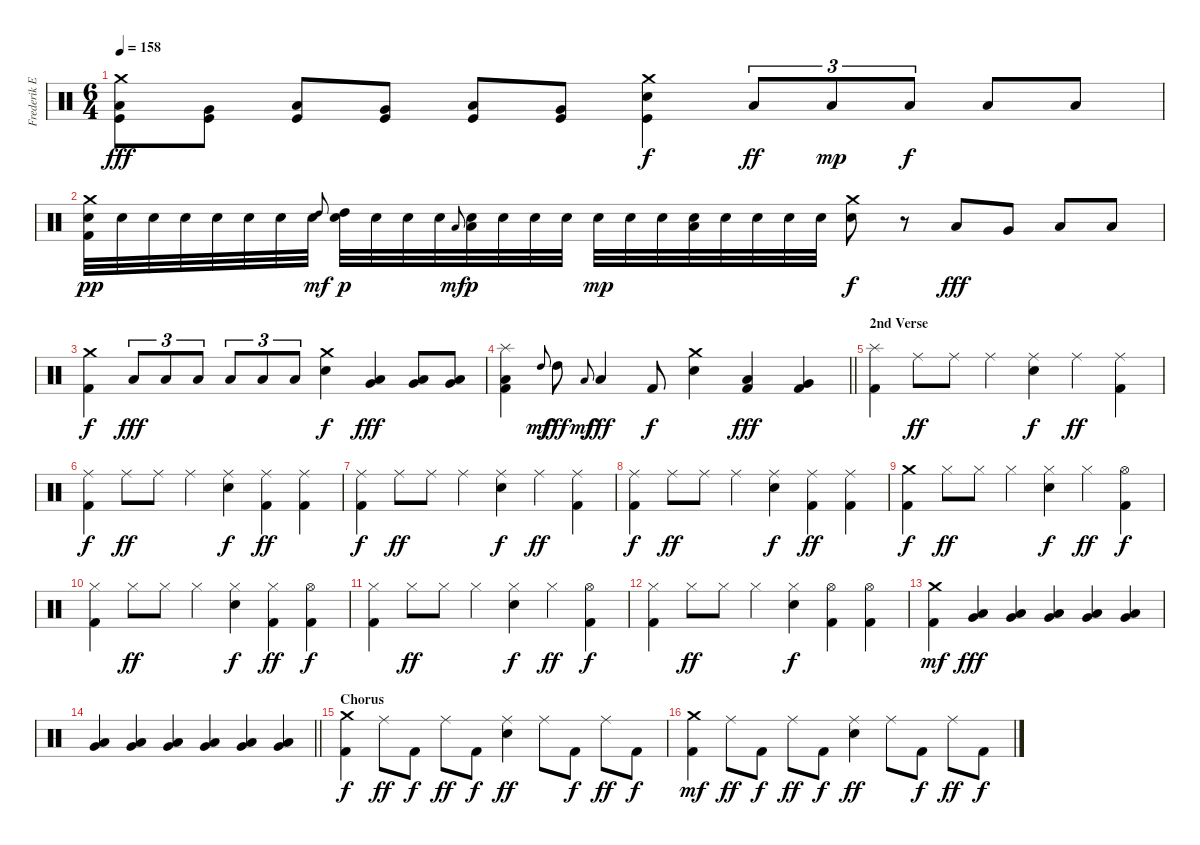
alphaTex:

\track ("Frederik Ehmke" "Frederik E") {instrument percussion}
\staff {score}
\articulation defaults
\ts (6 4)
\tempo 158
\clef neutral
\ks c
("Crash medium (hit)" "Low Floor Tom (hit)" "Kick (hit)").8{dy fff} ("Very Low Tom (hit)" "Kick (hit)").8 ("Low Tom (hit)" "Kick (hit)").8 ("Very Low Tom (hit)" "Kick (hit)").8 ("Low Floor Tom (hit)" "Kick (hit)").8 ("Very Low Tom (hit)" "Kick (hit)").8 ("Crash medium (hit)" "Electric Snare (hit)" "Kick (hit)").4{dy f} "Low Floor Tom (hit)".8{tu (3 2) dy ff} "Low Floor Tom (hit)".8{tu (3 2) dy mp} "Low Floor Tom (hit)".8{tu (3 2) dy f} "Low Floor Tom (hit)".8 "Low Floor Tom (hit)".8 |
("Crash medium (hit)" "Electric Snare (hit)" "Kick (hit) 2").32{dy pp} "Electric Snare (hit)".32 "Electric Snare (hit)".32 "Electric Snare (hit)".32 "Electric Snare (hit)".32 "Electric Snare (hit)".32 "Electric Snare (hit)".32 "Electric Snare (hit)".32 "High Tom (hit)".8{gr onbeat dy mf} ("High Tom (hit)" "Electric Snare (hit)").32{dy p} "Electric Snare (hit)".32 "Electric Snare (hit)".32 "Electric Snare (hit)".32 "Low Tom (hit)".8{gr onbeat dy mf} ("Low Tom (hit)" "Electric Snare (hit)").32{dy p} "Electric Snare (hit)".32 "Electric Snare (hit)".32 "Electric Snare (hit)".32 "Electric Snare (hit)".32{dy mp} "Electric Snare (hit)".32 "Electric Snare (hit)".32 ("Low Floor Tom (hit)" "Electric Snare (hit)").32 "Electric Snare (hit)".32 "Electric Snare (hit)".32 "Electric Snare (hit)".32 "Electric Snare (hit)".32 ("Crash medium (hit)" "Electric Snare (hit)").8{dy f} r.8 "Low Tom (hit)".8{dy fff} "Very Low Tom (hit)".8 "Low Floor Tom (hit)".8 "Low Floor Tom (hit)".8 |
("Crash medium (hit)" "Kick (hit) 2").4{dy f} "Low Tom (hit)".8{tu (3 2) dy fff} "Low Tom (hit)".8{tu (3 2)} "Low Tom (hit)".8{tu (3 2)} "Low Tom (hit)".8{tu (3 2)} "Low Tom (hit)".8{tu (3 2)} "Low Tom (hit)".8{tu (3 2)} ("Crash medium (hit)" "Electric Snare (hit)").4{dy f} ("Low Tom (hit)" "Very Low Tom (hit)").4{dy fff} ("Very Low Tom (hit)" "Low Floor Tom (hit)").8 ("Very Low Tom (hit)" "Low Floor Tom (hit)").8 |
\barLineRight lightlight
("Splash (hit)" "Low Tom (hit)" "Kick (hit) 2").4 "High Tom (hit)".8{gr onbeat dy mf} "High Tom (hit)".8{dy fff} "Low Tom (hit)".8{gr onbeat dy mf} "Low Tom (hit)".4{dy fff} "Kick (hit) 2".8{dy f} ("Crash medium (hit)" "Electric Snare (hit)").4 ("Low Tom (hit)" "Kick (hit) 2").4{dy fff} ("Very Low Tom (hit)" "Kick (hit) 2").4 |
\section ("" "2nd Verse")
("Splash (hit)" "Kick (hit) 2").4 "Ride (middle)".8{dy ff} "Ride (middle)".8 "Ride (middle)".4 ("Ride (middle)" "Electric Snare (hit)").4{dy f} "Ride (middle)".4{dy ff} ("Ride (middle)" "Kick (hit) 2").4 |
("Ride (middle)" "Kick (hit) 2").4{dy f} "Ride (middle)".8{dy ff} "Ride (middle)".8 "Ride (middle)".4 ("Ride (middle)" "Electric Snare (hit)").4{dy f} ("Ride (middle)" "Kick (hit) 2").4{dy ff} ("Ride (middle)" "Kick (hit) 2").4 |
("Ride (middle)" "Kick (hit) 2").4{dy f} "Ride (middle)".8{dy ff} "Ride (middle)".8 "Ride (middle)".4 ("Ride (middle)" "Electric Snare (hit)").4{dy f} "Ride (middle)".4{dy ff} ("Ride (middle)" "Kick (hit) 2").4 |
("Ride (middle)" "Kick (hit) 2").4{dy f} "Ride (middle)".8{dy ff} "Ride (middle)".8 "Ride (middle)".4 ("Ride (middle)" "Electric Snare (hit)").4{dy f} ("Ride (middle)" "Kick (hit) 2").4{dy ff} ("Ride (middle)" "Kick (hit) 2").4 |
("Crash medium (hit)" "Kick (hit) 2").4{dy f} "Hi-Hat (closed)".8{dy ff} "Hi-Hat (closed)".8 "Hi-Hat (closed)".4 ("Hi-Hat (closed)" "Electric Snare (hit)").4{dy f} "Hi-Hat (closed)".4{dy ff} ("Hi-Hat (open)" "Kick (hit) 2").4{dy f} |
("Hi-Hat (closed)" "Kick (hit) 2").4 "Hi-Hat (closed)".8{dy ff} "Hi-Hat (closed)".8 "Hi-Hat (closed)".4 ("Hi-Hat (closed)" "Electric Snare (hit)").4{dy f} ("Hi-Hat (closed)" "Kick (hit) 2").4{dy ff} ("Hi-Hat (open)" "Kick (hit) 2").4{dy f} |
("Hi-Hat (closed)" "Kick (hit) 2").4 "Hi-Hat (closed)".8{dy ff} "Hi-Hat (closed)".8 "Hi-Hat (closed)".4 ("Hi-Hat (closed)" "Electric Snare (hit)").4{dy f} "Hi-Hat (closed)".4{dy ff} ("Hi-Hat (open)" "Kick (hit) 2").4{dy f} |
("Hi-Hat (closed)" "Kick (hit) 2").4 "Hi-Hat (closed)".8{dy ff} "Hi-Hat (closed)".8 "Hi-Hat (closed)".4 ("Hi-Hat (closed)" "Electric Snare (hit)").4{dy f} ("Hi-Hat (open)" "Kick (hit) 2").4 ("Hi-Hat (open)" "Kick (hit) 2").4 |
("Crash medium (hit)" "Kick (hit) 2").4{dy mf} ("Low Tom (hit)" "Very Low Tom (hit)").4{dy fff} ("Low Tom (hit)" "Very Low Tom (hit)").4 ("Low Tom (hit)" "Very Low Tom (hit)").4 ("Low Tom (hit)" "Very Low Tom (hit)").4 ("Low Tom (hit)" "Very Low Tom (hit)").4 |
\barLineRight lightlight
("Low Tom (hit)" "Very Low Tom (hit)").4 ("Low Tom (hit)" "Very Low Tom (hit)").4 ("Low Tom (hit)" "Very Low Tom (hit)").4 ("Low Tom (hit)" "Very Low Tom (hit)").4 ("Low Tom (hit)" "Very Low Tom (hit)").4 ("Low Tom (hit)" "Very Low Tom (hit)").4 |
\section ("" "Chorus")
("Crash medium (hit)" "Kick (hit) 2").4{dy f} "Ride (middle)".8{dy ff} "Kick (hit) 2".8{dy f} "Ride (middle)".8{dy ff} "Kick (hit) 2".8{dy f} ("Ride (middle)" "Electric Snare (hit)").4{dy ff} "Ride (middle)".8 "Kick (hit) 2".8{dy f} "Ride (middle)".8{dy ff} "Kick (hit) 2".8{dy f} |
("Crash medium (hit)" "Kick (hit) 2").4{dy mf} "Ride (middle)".8{dy ff} "Kick (hit) 2".8{dy f} "Ride (middle)".8{dy ff} "Kick (hit) 2".8{dy f} ("Ride (middle)" "Electric Snare (hit)").4{dy ff} "Ride (middle)".8 "Kick (hit) 2".8{dy f} "Ride (middle)".8{dy ff} "Kick (hit) 2".8{dy f}
